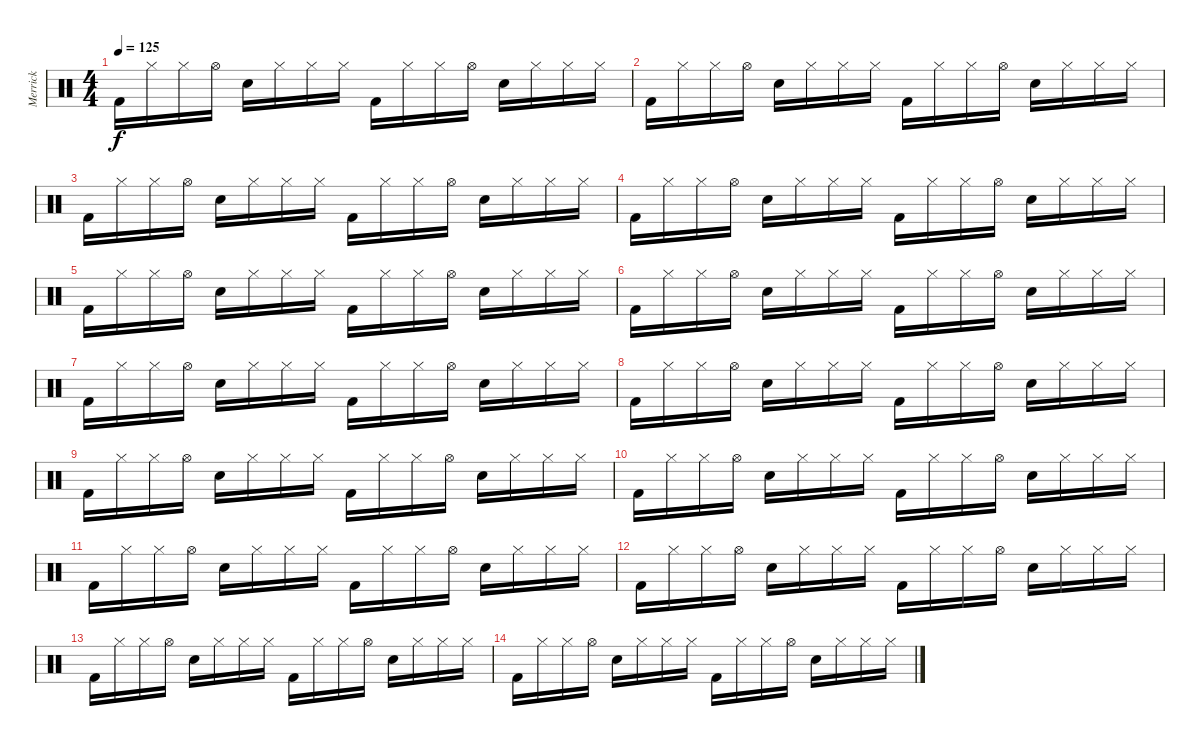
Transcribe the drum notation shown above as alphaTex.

\track ("Merrick " "Merrick ") {instrument percussion}
\staff {score}
\articulation defaults
\ts (4 4)
\tempo 125
\clef neutral
\ks c "Kick (hit) 2".16{dy f} "Hi-Hat (closed)".16 "Hi-Hat (closed)".16 "Hi-Hat (open)".16 "Electric Snare (hit)".16 "Hi-Hat (closed)".16 "Hi-Hat (closed)".16 "Hi-Hat (closed)".16 "Kick (hit) 2".16 "Hi-Hat (closed)".16 "Hi-Hat (closed)".16 "Hi-Hat (open)".16 "Electric Snare (hit)".16 "Hi-Hat (closed)".16 "Hi-Hat (closed)".16 "Hi-Hat (closed)".16
|
"Kick (hit) 2".16 "Hi-Hat (closed)".16 "Hi-Hat (closed)".16 "Hi-Hat (open)".16 "Electric Snare (hit)".16 "Hi-Hat (closed)".16 "Hi-Hat (closed)".16 "Hi-Hat (closed)".16 "Kick (hit) 2".16 "Hi-Hat (closed)".16 "Hi-Hat (closed)".16 "Hi-Hat (open)".16 "Electric Snare (hit)".16 "Hi-Hat (closed)".16 "Hi-Hat (closed)".16 "Hi-Hat (closed)".16 |
"Kick (hit) 2".16 "Hi-Hat (closed)".16 "Hi-Hat (closed)".16 "Hi-Hat (open)".16 "Electric Snare (hit)".16 "Hi-Hat (closed)".16 "Hi-Hat (closed)".16 "Hi-Hat (closed)".16 "Kick (hit) 2".16 "Hi-Hat (closed)".16 "Hi-Hat (closed)".16 "Hi-Hat (open)".16 "Electric Snare (hit)".16 "Hi-Hat (closed)".16 "Hi-Hat (closed)".16 "Hi-Hat (closed)".16 |
"Kick (hit) 2".16 "Hi-Hat (closed)".16 "Hi-Hat (closed)".16 "Hi-Hat (open)".16 "Electric Snare (hit)".16 "Hi-Hat (closed)".16 "Hi-Hat (closed)".16 "Hi-Hat (closed)".16 "Kick (hit) 2".16 "Hi-Hat (closed)".16 "Hi-Hat (closed)".16 "Hi-Hat (open)".16 "Electric Snare (hit)".16 "Hi-Hat (closed)".16 "Hi-Hat (closed)".16 "Hi-Hat (closed)".16 |
"Kick (hit) 2".16 "Hi-Hat (closed)".16 "Hi-Hat (closed)".16 "Hi-Hat (open)".16 "Electric Snare (hit)".16 "Hi-Hat (closed)".16 "Hi-Hat (closed)".16 "Hi-Hat (closed)".16 "Kick (hit) 2".16 "Hi-Hat (closed)".16 "Hi-Hat (closed)".16 "Hi-Hat (open)".16 "Electric Snare (hit)".16 "Hi-Hat (closed)".16 "Hi-Hat (closed)".16 "Hi-Hat (closed)".16 |
"Kick (hit) 2".16 "Hi-Hat (closed)".16 "Hi-Hat (closed)".16 "Hi-Hat (open)".16 "Electric Snare (hit)".16 "Hi-Hat (closed)".16 "Hi-Hat (closed)".16 "Hi-Hat (closed)".16 "Kick (hit) 2".16 "Hi-Hat (closed)".16 "Hi-Hat (closed)".16 "Hi-Hat (open)".16 "Electric Snare (hit)".16 "Hi-Hat (closed)".16 "Hi-Hat (closed)".16 "Hi-Hat (closed)".16 |
"Kick (hit) 2".16 "Hi-Hat (closed)".16 "Hi-Hat (closed)".16 "Hi-Hat (open)".16 "Electric Snare (hit)".16 "Hi-Hat (closed)".16 "Hi-Hat (closed)".16 "Hi-Hat (closed)".16 "Kick (hit) 2".16 "Hi-Hat (closed)".16 "Hi-Hat (closed)".16 "Hi-Hat (open)".16 "Electric Snare (hit)".16 "Hi-Hat (closed)".16 "Hi-Hat (closed)".16 "Hi-Hat (closed)".16 |
"Kick (hit) 2".16 "Hi-Hat (closed)".16 "Hi-Hat (closed)".16 "Hi-Hat (open)".16 "Electric Snare (hit)".16 "Hi-Hat (closed)".16 "Hi-Hat (closed)".16 "Hi-Hat (closed)".16 "Kick (hit) 2".16 "Hi-Hat (closed)".16 "Hi-Hat (closed)".16 "Hi-Hat (open)".16 "Electric Snare (hit)".16 "Hi-Hat (closed)".16 "Hi-Hat (closed)".16 "Hi-Hat (closed)".16 |
"Kick (hit) 2".16 "Hi-Hat (closed)".16 "Hi-Hat (closed)".16 "Hi-Hat (open)".16 "Electric Snare (hit)".16 "Hi-Hat (closed)".16 "Hi-Hat (closed)".16 "Hi-Hat (closed)".16 "Kick (hit) 2".16 "Hi-Hat (closed)".16 "Hi-Hat (closed)".16 "Hi-Hat (open)".16 "Electric Snare (hit)".16 "Hi-Hat (closed)".16 "Hi-Hat (closed)".16 "Hi-Hat (closed)".16 |
"Kick (hit) 2".16 "Hi-Hat (closed)".16 "Hi-Hat (closed)".16 "Hi-Hat (open)".16 "Electric Snare (hit)".16 "Hi-Hat (closed)".16 "Hi-Hat (closed)".16 "Hi-Hat (closed)".16 "Kick (hit) 2".16 "Hi-Hat (closed)".16 "Hi-Hat (closed)".16 "Hi-Hat (open)".16 "Electric Snare (hit)".16 "Hi-Hat (closed)".16 "Hi-Hat (closed)".16 "Hi-Hat (closed)".16 |
"Kick (hit) 2".16 "Hi-Hat (closed)".16 "Hi-Hat (closed)".16 "Hi-Hat (open)".16 "Electric Snare (hit)".16 "Hi-Hat (closed)".16 "Hi-Hat (closed)".16 "Hi-Hat (closed)".16 "Kick (hit) 2".16 "Hi-Hat (closed)".16 "Hi-Hat (closed)".16 "Hi-Hat (open)".16 "Electric Snare (hit)".16 "Hi-Hat (closed)".16 "Hi-Hat (closed)".16 "Hi-Hat (closed)".16 |
"Kick (hit) 2".16 "Hi-Hat (closed)".16 "Hi-Hat (closed)".16 "Hi-Hat (open)".16 "Electric Snare (hit)".16 "Hi-Hat (closed)".16 "Hi-Hat (closed)".16 "Hi-Hat (closed)".16 "Kick (hit) 2".16 "Hi-Hat (closed)".16 "Hi-Hat (closed)".16 "Hi-Hat (open)".16 "Electric Snare (hit)".16 "Hi-Hat (closed)".16 "Hi-Hat (closed)".16 "Hi-Hat (closed)".16 |
"Kick (hit) 2".16 "Hi-Hat (closed)".16 "Hi-Hat (closed)".16 "Hi-Hat (open)".16 "Electric Snare (hit)".16 "Hi-Hat (closed)".16 "Hi-Hat (closed)".16 "Hi-Hat (closed)".16 "Kick (hit) 2".16 "Hi-Hat (closed)".16 "Hi-Hat (closed)".16 "Hi-Hat (open)".16 "Electric Snare (hit)".16 "Hi-Hat (closed)".16 "Hi-Hat (closed)".16 "Hi-Hat (closed)".16 |
"Kick (hit) 2".16 "Hi-Hat (closed)".16 "Hi-Hat (closed)".16 "Hi-Hat (open)".16 "Electric Snare (hit)".16 "Hi-Hat (closed)".16 "Hi-Hat (closed)".16 "Hi-Hat (closed)".16 "Kick (hit) 2".16 "Hi-Hat (closed)".16 "Hi-Hat (closed)".16 "Hi-Hat (open)".16 "Electric Snare (hit)".16 "Hi-Hat (closed)".16 "Hi-Hat (closed)".16 "Hi-Hat (closed)".16
